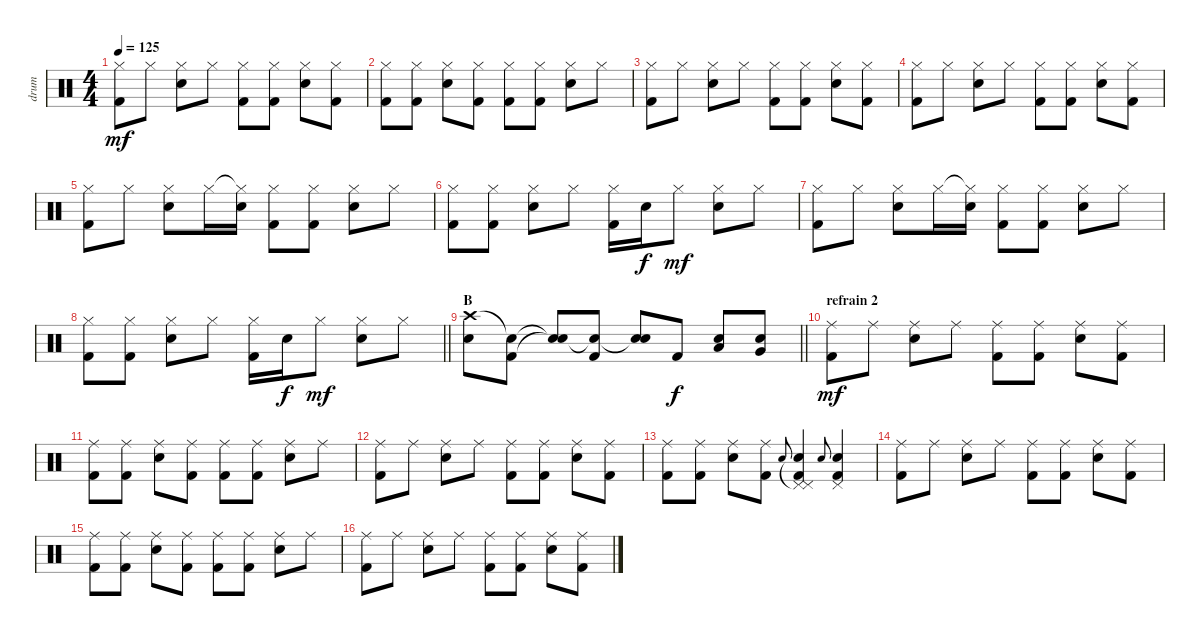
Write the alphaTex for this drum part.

\track ("drum" "drum") {instrument percussion}
\staff {score}
\articulation defaults
\ts (4 4)
\tempo 125
\clef neutral
\ks c
("Hi-Hat (closed)" "Kick (hit) 2").8{dy mf} "Hi-Hat (closed)".8 ("Hi-Hat (closed)" "Electric Snare (hit)").8 "Hi-Hat (closed)".8 ("Hi-Hat (closed)" "Kick (hit) 2").8 ("Hi-Hat (closed)" "Kick (hit) 2").8 ("Hi-Hat (closed)" "Electric Snare (hit)").8 ("Hi-Hat (closed)" "Kick (hit) 2").8 |
("Hi-Hat (closed)" "Kick (hit) 2").8 ("Hi-Hat (closed)" "Kick (hit) 2").8 ("Hi-Hat (closed)" "Electric Snare (hit)").8 ("Hi-Hat (closed)" "Kick (hit) 2").8 ("Hi-Hat (closed)" "Kick (hit) 2").8 ("Hi-Hat (closed)" "Kick (hit) 2").8 ("Hi-Hat (closed)" "Electric Snare (hit)").8 "Hi-Hat (closed)".8 |
("Hi-Hat (closed)" "Kick (hit) 2").8 "Hi-Hat (closed)".8 ("Hi-Hat (closed)" "Electric Snare (hit)").8 "Hi-Hat (closed)".8 ("Hi-Hat (closed)" "Kick (hit) 2").8 ("Hi-Hat (closed)" "Kick (hit) 2").8 ("Hi-Hat (closed)" "Electric Snare (hit)").8 ("Hi-Hat (closed)" "Kick (hit) 2").8 |
("Hi-Hat (closed)" "Kick (hit) 2").8 "Hi-Hat (closed)".8 ("Hi-Hat (closed)" "Electric Snare (hit)").8 "Hi-Hat (closed)".8 ("Hi-Hat (closed)" "Kick (hit) 2").8 ("Hi-Hat (closed)" "Kick (hit) 2").8 ("Hi-Hat (closed)" "Electric Snare (hit)").8 ("Hi-Hat (closed)" "Kick (hit) 2").8 |
("Hi-Hat (closed)" "Kick (hit) 2").8 "Hi-Hat (closed)".8 ("Hi-Hat (closed)" "Electric Snare (hit)").8 "Hi-Hat (closed)".16 ("Hi-Hat (closed)"{t} "Electric Snare (hit)").16 ("Hi-Hat (closed)" "Kick (hit) 2").8 ("Hi-Hat (closed)" "Kick (hit) 2").8 ("Hi-Hat (closed)" "Electric Snare (hit)").8 "Hi-Hat (closed)".8 |
("Hi-Hat (closed)" "Kick (hit) 2").8 ("Hi-Hat (closed)" "Kick (hit) 2").8 ("Hi-Hat (closed)" "Electric Snare (hit)").8 "Hi-Hat (closed)".8 ("Hi-Hat (closed)" "Kick (hit) 2").16 "Electric Snare (hit)".16{dy f} "Hi-Hat (closed)".8{dy mf} ("Hi-Hat (closed)" "Electric Snare (hit)").8 "Hi-Hat (closed)".8 |
("Hi-Hat (closed)" "Kick (hit) 2").8 "Hi-Hat (closed)".8 ("Hi-Hat (closed)" "Electric Snare (hit)").8 "Hi-Hat (closed)".16 ("Hi-Hat (closed)"{t} "Electric Snare (hit)").16 ("Hi-Hat (closed)" "Kick (hit) 2").8 ("Hi-Hat (closed)" "Kick (hit) 2").8 ("Hi-Hat (closed)" "Electric Snare (hit)").8 "Hi-Hat (closed)".8 |
\barLineRight lightlight
("Hi-Hat (closed)" "Kick (hit) 2").8 ("Hi-Hat (closed)" "Kick (hit) 2").8 ("Hi-Hat (closed)" "Electric Snare (hit)").8 "Hi-Hat (closed)".8 ("Hi-Hat (closed)" "Kick (hit) 2").16 "Electric Snare (hit)".16{dy f} "Hi-Hat (closed)".8{dy mf} ("Hi-Hat (closed)" "Electric Snare (hit)").8 "Hi-Hat (closed)".8 |
\section ("" "B")
\barLineRight lightlight
("Crash high (hit)" "Electric Snare (hit)").8 ("Snare (hit)"{t} "Kick (hit) 2").8 ("Snare (hit)"{t} "Snare (hit)"{t}).8 ("Snare (hit)"{t} "Kick (hit) 2").8 ("Snare (hit)"{t} "Electric Snare (hit)").8 "Kick (hit) 2".8{dy f} ("Low Floor Tom (hit)" "Electric Snare (hit)").8 ("Very Low Tom (hit)" "Electric Snare (hit)").8 |
\section ("" "refrain 2")
("Ride (middle)" "Kick (hit) 2").8{dy mf} "Ride (middle)".8 ("Ride (middle)" "Electric Snare (hit)").8 "Ride (middle)".8 ("Ride (middle)" "Kick (hit) 2").8 ("Ride (middle)" "Kick (hit) 2").8 ("Ride (middle)" "Electric Snare (hit)").8 ("Ride (middle)" "Kick (hit) 2").8 |
("Ride (middle)" "Kick (hit) 2").8 ("Ride (middle)" "Kick (hit) 2").8 ("Ride (middle)" "Electric Snare (hit)").8 ("Ride (middle)" "Kick (hit) 2").8 ("Ride (middle)" "Kick (hit) 2").8 ("Ride (middle)" "Kick (hit) 2").8 ("Ride (middle)" "Electric Snare (hit)").8 "Ride (middle)".8 |
("Ride (middle)" "Kick (hit) 2").8 "Ride (middle)".8 ("Ride (middle)" "Electric Snare (hit)").8 "Ride (middle)".8 ("Ride (middle)" "Kick (hit) 2").8 ("Ride (middle)" "Kick (hit) 2").8 ("Ride (middle)" "Electric Snare (hit)").8 ("Ride (middle)" "Kick (hit) 2").8 |
("Ride (middle)" "Kick (hit) 2").8 ("Ride (middle)" "Kick (hit) 2").8 ("Ride (middle)" "Electric Snare (hit)").8 ("Ride (middle)" "Kick (hit) 2").8 "Electric Snare (hit)".8{gr onbeat} ("Pedal Hi-Hat (hit)"{t} "Pedal Hi-Hat (hit)" "Electric Snare (hit)" "Kick (hit) 2").4 "Electric Snare (hit)".8{gr onbeat} ("Pedal Hi-Hat (hit)" "Electric Snare (hit)" "Kick (hit) 2").4 |
("Ride (middle)" "Kick (hit) 2").8 "Ride (middle)".8 ("Ride (middle)" "Electric Snare (hit)").8 "Ride (middle)".8 ("Ride (middle)" "Kick (hit) 2").8 ("Ride (middle)" "Kick (hit) 2").8 ("Ride (middle)" "Electric Snare (hit)").8 ("Ride (middle)" "Kick (hit) 2").8 |
("Ride (middle)" "Kick (hit) 2").8 ("Ride (middle)" "Kick (hit) 2").8 ("Ride (middle)" "Electric Snare (hit)").8 ("Ride (middle)" "Kick (hit) 2").8 ("Ride (middle)" "Kick (hit) 2").8 ("Ride (middle)" "Kick (hit) 2").8 ("Ride (middle)" "Electric Snare (hit)").8 "Ride (middle)".8 |
("Ride (middle)" "Kick (hit) 2").8 "Ride (middle)".8 ("Ride (middle)" "Electric Snare (hit)").8 "Ride (middle)".8 ("Ride (middle)" "Kick (hit) 2").8 ("Ride (middle)" "Kick (hit) 2").8 ("Ride (middle)" "Electric Snare (hit)").8 ("Ride (middle)" "Kick (hit) 2").8
